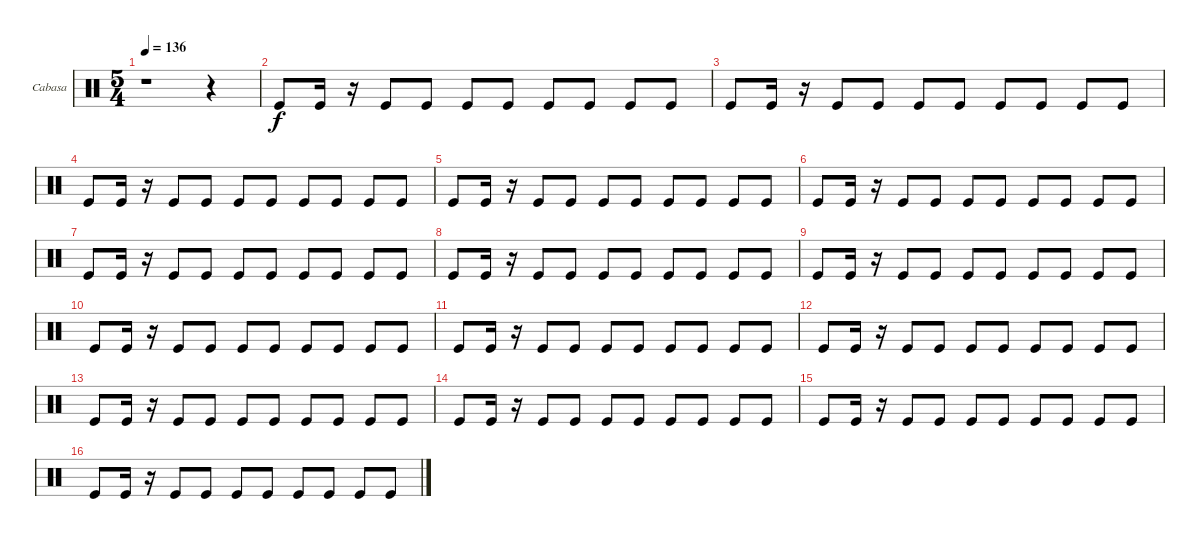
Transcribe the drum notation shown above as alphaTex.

\bracketExtendMode groupsimilarinstruments
\firstSystemTrackNameOrientation horizontal
\otherSystemsTrackNameOrientation horizontal
\track ("Cabasa" "Cabasa") {instrument percussion}
\staff {score}
\articulation defaults
\ts (5 4)
\tempo 136
\clef neutral
\ks c
r.1{dy f} r.4 |
"Kick (hit)".8 "Kick (hit)".16 r.16 "Kick (hit)".8 "Kick (hit)".8 "Kick (hit)".8 "Kick (hit)".8 "Kick (hit)".8 "Kick (hit)".8 "Kick (hit)".8 "Kick (hit)".8 |
"Kick (hit)".8 "Kick (hit)".16 r.16 "Kick (hit)".8 "Kick (hit)".8 "Kick (hit)".8 "Kick (hit)".8 "Kick (hit)".8 "Kick (hit)".8 "Kick (hit)".8 "Kick (hit)".8 |
"Kick (hit)".8 "Kick (hit)".16 r.16 "Kick (hit)".8 "Kick (hit)".8 "Kick (hit)".8 "Kick (hit)".8 "Kick (hit)".8 "Kick (hit)".8 "Kick (hit)".8 "Kick (hit)".8 |
"Kick (hit)".8 "Kick (hit)".16 r.16 "Kick (hit)".8 "Kick (hit)".8 "Kick (hit)".8 "Kick (hit)".8 "Kick (hit)".8 "Kick (hit)".8 "Kick (hit)".8 "Kick (hit)".8 |
"Kick (hit)".8 "Kick (hit)".16 r.16 "Kick (hit)".8 "Kick (hit)".8 "Kick (hit)".8 "Kick (hit)".8 "Kick (hit)".8 "Kick (hit)".8 "Kick (hit)".8 "Kick (hit)".8 |
"Kick (hit)".8 "Kick (hit)".16 r.16 "Kick (hit)".8 "Kick (hit)".8 "Kick (hit)".8 "Kick (hit)".8 "Kick (hit)".8 "Kick (hit)".8 "Kick (hit)".8 "Kick (hit)".8 |
"Kick (hit)".8 "Kick (hit)".16 r.16 "Kick (hit)".8 "Kick (hit)".8 "Kick (hit)".8 "Kick (hit)".8 "Kick (hit)".8 "Kick (hit)".8 "Kick (hit)".8 "Kick (hit)".8 |
"Kick (hit)".8 "Kick (hit)".16 r.16 "Kick (hit)".8 "Kick (hit)".8 "Kick (hit)".8 "Kick (hit)".8 "Kick (hit)".8 "Kick (hit)".8 "Kick (hit)".8 "Kick (hit)".8 |
"Kick (hit)".8 "Kick (hit)".16 r.16 "Kick (hit)".8 "Kick (hit)".8 "Kick (hit)".8 "Kick (hit)".8 "Kick (hit)".8 "Kick (hit)".8 "Kick (hit)".8 "Kick (hit)".8 |
"Kick (hit)".8 "Kick (hit)".16 r.16 "Kick (hit)".8 "Kick (hit)".8 "Kick (hit)".8 "Kick (hit)".8 "Kick (hit)".8 "Kick (hit)".8 "Kick (hit)".8 "Kick (hit)".8 |
"Kick (hit)".8 "Kick (hit)".16 r.16 "Kick (hit)".8 "Kick (hit)".8 "Kick (hit)".8 "Kick (hit)".8 "Kick (hit)".8 "Kick (hit)".8 "Kick (hit)".8 "Kick (hit)".8 |
"Kick (hit)".8 "Kick (hit)".16 r.16 "Kick (hit)".8 "Kick (hit)".8 "Kick (hit)".8 "Kick (hit)".8 "Kick (hit)".8 "Kick (hit)".8 "Kick (hit)".8 "Kick (hit)".8 |
"Kick (hit)".8 "Kick (hit)".16 r.16 "Kick (hit)".8 "Kick (hit)".8 "Kick (hit)".8 "Kick (hit)".8 "Kick (hit)".8 "Kick (hit)".8 "Kick (hit)".8 "Kick (hit)".8 |
"Kick (hit)".8 "Kick (hit)".16 r.16 "Kick (hit)".8 "Kick (hit)".8 "Kick (hit)".8 "Kick (hit)".8 "Kick (hit)".8 "Kick (hit)".8 "Kick (hit)".8 "Kick (hit)".8 |
"Kick (hit)".8 "Kick (hit)".16 r.16 "Kick (hit)".8 "Kick (hit)".8 "Kick (hit)".8 "Kick (hit)".8 "Kick (hit)".8 "Kick (hit)".8 "Kick (hit)".8 "Kick (hit)".8
